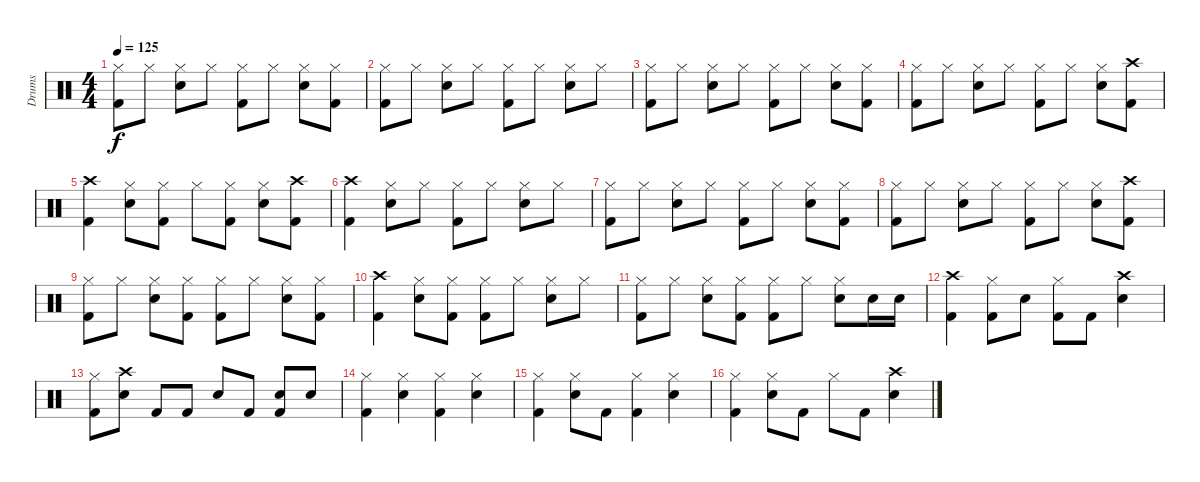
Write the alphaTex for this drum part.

\track ("Drums" "Drums") {instrument percussion}
\staff {score}
\articulation defaults
\ts (4 4)
\tempo 125
\clef neutral
\ks c
("Hi-Hat (closed)" "Kick (hit) 2").8{dy f} "Hi-Hat (closed)".8 ("Hi-Hat (closed)" "Electric Snare (hit)").8 "Hi-Hat (closed)".8 ("Hi-Hat (closed)" "Kick (hit) 2").8 "Hi-Hat (closed)".8 ("Hi-Hat (closed)" "Electric Snare (hit)").8 ("Hi-Hat (closed)" "Kick (hit) 2").8 |
("Hi-Hat (closed)" "Kick (hit) 2").8 "Hi-Hat (closed)".8 ("Hi-Hat (closed)" "Electric Snare (hit)").8 "Hi-Hat (closed)".8 ("Hi-Hat (closed)" "Kick (hit) 2").8 "Hi-Hat (closed)".8 ("Hi-Hat (closed)" "Electric Snare (hit)").8 "Hi-Hat (closed)".8 |
("Hi-Hat (closed)" "Kick (hit) 2").8 "Hi-Hat (closed)".8 ("Hi-Hat (closed)" "Electric Snare (hit)").8 "Hi-Hat (closed)".8 ("Hi-Hat (closed)" "Kick (hit) 2").8 "Hi-Hat (closed)".8 ("Hi-Hat (closed)" "Electric Snare (hit)").8 ("Hi-Hat (closed)" "Kick (hit) 2").8 |
("Hi-Hat (closed)" "Kick (hit) 2").8 "Hi-Hat (closed)".8 ("Hi-Hat (closed)" "Electric Snare (hit)").8 "Hi-Hat (closed)".8 ("Hi-Hat (closed)" "Kick (hit) 2").8 "Hi-Hat (closed)".8 ("Hi-Hat (closed)" "Electric Snare (hit)").8 ("Crash high (hit)" "Kick (hit) 2").8 |
("Crash high (hit)" "Kick (hit) 2").4 ("Hi-Hat (closed)" "Electric Snare (hit)").8 ("Hi-Hat (closed)" "Kick (hit) 2").8 "Hi-Hat (closed)".8 ("Hi-Hat (closed)" "Kick (hit) 2").8 ("Hi-Hat (closed)" "Electric Snare (hit)").8 ("Crash high (hit)" "Kick (hit) 2").8 |
("Crash high (hit)" "Kick (hit) 2").4 ("Hi-Hat (closed)" "Electric Snare (hit)").8 "Hi-Hat (closed)".8 ("Hi-Hat (closed)" "Kick (hit) 2").8 "Hi-Hat (closed)".8 ("Hi-Hat (closed)" "Electric Snare (hit)").8 "Hi-Hat (closed)".8 |
("Hi-Hat (closed)" "Kick (hit) 2").8 "Hi-Hat (closed)".8 ("Hi-Hat (closed)" "Electric Snare (hit)").8 "Hi-Hat (closed)".8 ("Hi-Hat (closed)" "Kick (hit) 2").8 "Hi-Hat (closed)".8 ("Hi-Hat (closed)" "Electric Snare (hit)").8 ("Hi-Hat (closed)" "Kick (hit) 2").8 |
("Hi-Hat (closed)" "Kick (hit) 2").8 "Hi-Hat (closed)".8 ("Hi-Hat (closed)" "Electric Snare (hit)").8 "Hi-Hat (closed)".8 ("Hi-Hat (closed)" "Kick (hit) 2").8 "Hi-Hat (closed)".8 ("Hi-Hat (closed)" "Electric Snare (hit)").8 ("Crash high (hit)" "Kick (hit) 2").8 |
("Hi-Hat (closed)" "Kick (hit) 2").8 "Hi-Hat (closed)".8 ("Hi-Hat (closed)" "Electric Snare (hit)").8 ("Hi-Hat (closed)" "Kick (hit) 2").8 ("Hi-Hat (closed)" "Kick (hit) 2").8 "Hi-Hat (closed)".8 ("Hi-Hat (closed)" "Electric Snare (hit)").8 ("Hi-Hat (closed)" "Kick (hit) 2").8 |
("Crash high (hit)" "Kick (hit) 2").4 ("Hi-Hat (closed)" "Electric Snare (hit)").8 ("Hi-Hat (closed)" "Kick (hit) 2").8 ("Hi-Hat (closed)" "Kick (hit) 2").8 "Hi-Hat (closed)".8 ("Hi-Hat (closed)" "Electric Snare (hit)").8 "Hi-Hat (closed)".8 |
("Hi-Hat (closed)" "Kick (hit) 2").8 "Hi-Hat (closed)".8 ("Hi-Hat (closed)" "Electric Snare (hit)").8 ("Hi-Hat (closed)" "Kick (hit) 2").8 ("Hi-Hat (closed)" "Kick (hit) 2").8 "Hi-Hat (closed)".8 ("Hi-Hat (closed)" "Electric Snare (hit)").8 "Electric Snare (hit)".16 "Electric Snare (hit)".16 |
("Crash high (hit)" "Kick (hit) 2").4 ("Hi-Hat (closed)" "Kick (hit) 2").8 "Electric Snare (hit)".8 ("Hi-Hat (closed)" "Kick (hit) 2").8 "Kick (hit) 2".8 ("Crash high (hit)" "Electric Snare (hit)").4 |
("Hi-Hat (closed)" "Kick (hit) 2").8 ("Crash high (hit)" "Electric Snare (hit)").8 "Kick (hit) 2".8 "Kick (hit) 2".8 "Electric Snare (hit)".8 "Kick (hit) 2".8 ("Electric Snare (hit)" "Kick (hit) 2").8 "Electric Snare (hit)".8 |
("Hi-Hat (closed)" "Kick (hit) 2").4 ("Hi-Hat (closed)" "Electric Snare (hit)").4 ("Hi-Hat (closed)" "Kick (hit) 2").4 ("Hi-Hat (closed)" "Electric Snare (hit)").4 |
("Hi-Hat (closed)" "Kick (hit) 2").4 ("Hi-Hat (closed)" "Electric Snare (hit)").8 "Kick (hit) 2".8 ("Hi-Hat (closed)" "Kick (hit) 2").4 ("Hi-Hat (closed)" "Electric Snare (hit)").4 |
("Hi-Hat (closed)" "Kick (hit) 2").4 ("Hi-Hat (closed)" "Electric Snare (hit)").8 "Kick (hit) 2".8 "Hi-Hat (closed)".8 "Kick (hit) 2".8 ("Crash high (hit)" "Electric Snare (hit)").4
